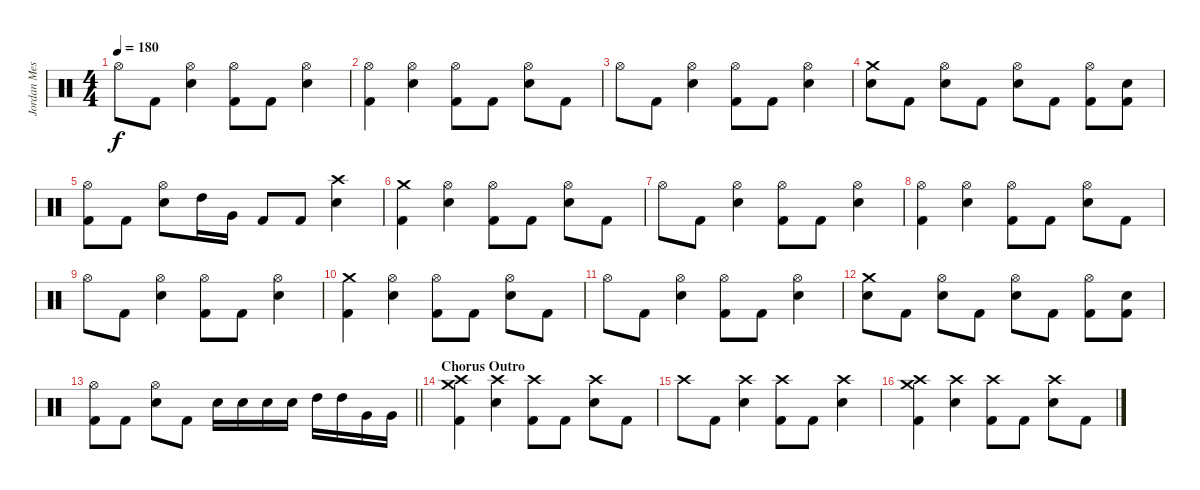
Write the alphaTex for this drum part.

\track ("Jordan Messer " "Jordan Mes") {instrument percussion}
\staff {score}
\articulation defaults
\ts (4 4)
\tempo 180
\clef neutral
\ks c "Hi-Hat (open)".8{dy f} "Kick (hit) 2".8
("Hi-Hat (open)" "Snare (hit) 2").4 ("Hi-Hat (open)" "Kick (hit) 2").8 "Kick (hit) 2".8 ("Hi-Hat (open)" "Snare (hit) 2").4 |
("Hi-Hat (open)" "Kick (hit) 2").4 ("Hi-Hat (open)" "Snare (hit) 2").4 ("Hi-Hat (open)" "Kick (hit) 2").8 "Kick (hit) 2".8 ("Hi-Hat (open)" "Snare (hit) 2").8 "Kick (hit) 2".8 |
"Hi-Hat (open)".8 "Kick (hit) 2".8 ("Hi-Hat (open)" "Snare (hit) 2").4 ("Hi-Hat (open)" "Kick (hit) 2").8 "Kick (hit) 2".8 ("Hi-Hat (open)" "Snare (hit) 2").4 |
("Crash medium (hit)" "Snare (hit) 2").8 "Kick (hit) 2".8 ("Hi-Hat (open)" "Snare (hit) 2").8 "Kick (hit) 2".8 ("Hi-Hat (open)" "Snare (hit) 2").8 "Kick (hit) 2".8 ("Hi-Hat (open)" "Kick (hit) 2").8 ("Snare (hit) 2" "Kick (hit) 2").8 |
("Hi-Hat (open)" "Kick (hit) 2").8 "Kick (hit) 2".8 ("Hi-Hat (open)" "Snare (hit) 2").8 "High Tom (hit)".16 "Very Low Tom (hit)".16 "Kick (hit) 2".8 "Kick (hit) 2".8 ("Crash high (hit)" "Snare (hit) 2").4 |
("Crash medium (hit)" "Kick (hit) 2").4 ("Hi-Hat (open)" "Snare (hit) 2").4 ("Hi-Hat (open)" "Kick (hit) 2").8 "Kick (hit) 2".8 ("Hi-Hat (open)" "Snare (hit) 2").8 "Kick (hit) 2".8 |
"Hi-Hat (open)".8 "Kick (hit) 2".8 ("Hi-Hat (open)" "Snare (hit) 2").4 ("Hi-Hat (open)" "Kick (hit) 2").8 "Kick (hit) 2".8 ("Hi-Hat (open)" "Snare (hit) 2").4 |
("Hi-Hat (open)" "Kick (hit) 2").4 ("Hi-Hat (open)" "Snare (hit) 2").4 ("Hi-Hat (open)" "Kick (hit) 2").8 "Kick (hit) 2".8 ("Hi-Hat (open)" "Snare (hit) 2").8 "Kick (hit) 2".8 |
"Hi-Hat (open)".8 "Kick (hit) 2".8 ("Hi-Hat (open)" "Snare (hit) 2").4 ("Hi-Hat (open)" "Kick (hit) 2").8 "Kick (hit) 2".8 ("Hi-Hat (open)" "Snare (hit) 2").4 |
("Crash medium (hit)" "Kick (hit) 2").4 ("Hi-Hat (open)" "Snare (hit) 2").4 ("Hi-Hat (open)" "Kick (hit) 2").8 "Kick (hit) 2".8 ("Hi-Hat (open)" "Snare (hit) 2").8 "Kick (hit) 2".8 |
"Hi-Hat (open)".8 "Kick (hit) 2".8 ("Hi-Hat (open)" "Snare (hit) 2").4 ("Hi-Hat (open)" "Kick (hit) 2").8 "Kick (hit) 2".8 ("Hi-Hat (open)" "Snare (hit) 2").4 |
("Crash medium (hit)" "Snare (hit) 2").8 "Kick (hit) 2".8 ("Hi-Hat (open)" "Snare (hit) 2").8 "Kick (hit) 2".8 ("Hi-Hat (open)" "Snare (hit) 2").8 "Kick (hit) 2".8 ("Hi-Hat (open)" "Kick (hit) 2").8 ("Snare (hit) 2" "Kick (hit) 2").8 |
\barLineRight lightlight
("Hi-Hat (open)" "Kick (hit) 2").8 "Kick (hit) 2".8 ("Hi-Hat (open)" "Snare (hit) 2").8 "Kick (hit) 2".8 "Snare (hit) 2".16 "Snare (hit) 2".16 "Snare (hit) 2".16 "Snare (hit) 2".16 "High Tom (hit)".16 "High Tom (hit)".16 "Very Low Tom (hit)".16 "Very Low Tom (hit)".16 |
\section ("" "Chorus Outro")
("Crash medium (hit)" "Crash high (hit)" "Kick (hit) 2").4 ("Crash high (hit)" "Snare (hit) 2").4 ("Crash high (hit)" "Kick (hit) 2").8 "Kick (hit) 2".8 ("Crash high (hit)" "Snare (hit) 2").8 "Kick (hit) 2".8 |
"Crash high (hit)".8 "Kick (hit) 2".8 ("Crash high (hit)" "Snare (hit) 2").4 ("Crash high (hit)" "Kick (hit) 2").8 "Kick (hit) 2".8 ("Crash high (hit)" "Snare (hit) 2").4 |
("Crash high (hit)" "Crash medium (hit)" "Kick (hit) 2").4 ("Crash high (hit)" "Snare (hit) 2").4 ("Crash high (hit)" "Kick (hit) 2").8 "Kick (hit) 2".8 ("Crash high (hit)" "Snare (hit) 2").8 "Kick (hit) 2".8
